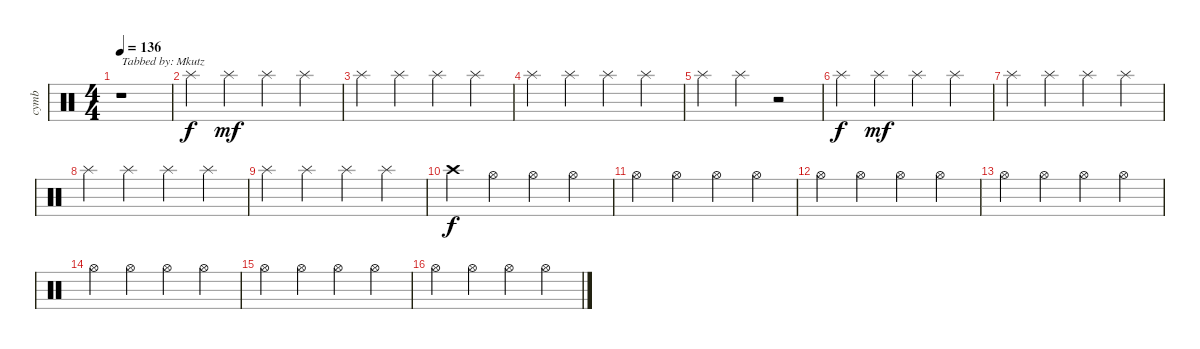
\track ("cymb" "cymb") {instrument percussion}
\staff {score}
\articulation defaults
\ts (4 4)
\tempo 136
\clef neutral
\ks c
r.1{txt "Tabbed by: Mkutz" dy f} |
"Splash (hit)".4 "Splash (hit)".4{dy mf} "Splash (hit)".4 "Splash (hit)".4 |
"Splash (hit)".4 "Splash (hit)".4 "Splash (hit)".4 "Splash (hit)".4 |
"Splash (hit)".4 "Splash (hit)".4 "Splash (hit)".4 "Splash (hit)".4 |
"Splash (hit)".4 "Splash (hit)".4 r.2 |
"Splash (hit)".4{dy f} "Splash (hit)".4{dy mf} "Splash (hit)".4 "Splash (hit)".4 |
"Splash (hit)".4 "Splash (hit)".4 "Splash (hit)".4 "Splash (hit)".4 |
"Splash (hit)".4 "Splash (hit)".4 "Splash (hit)".4 "Splash (hit)".4 |
"Splash (hit)".4 "Splash (hit)".4 "Splash (hit)".4 "Splash (hit)".4 |
"Crash high (hit)".4{dy f} "Hi-Hat (open)".4 "Hi-Hat (open)".4 "Hi-Hat (open)".4 |
"Hi-Hat (open)".4 "Hi-Hat (open)".4 "Hi-Hat (open)".4 "Hi-Hat (open)".4 |
"Hi-Hat (open)".4 "Hi-Hat (open)".4 "Hi-Hat (open)".4 "Hi-Hat (open)".4 |
"Hi-Hat (open)".4 "Hi-Hat (open)".4 "Hi-Hat (open)".4 "Hi-Hat (open)".4 |
"Hi-Hat (open)".4 "Hi-Hat (open)".4 "Hi-Hat (open)".4 "Hi-Hat (open)".4 |
"Hi-Hat (open)".4 "Hi-Hat (open)".4 "Hi-Hat (open)".4 "Hi-Hat (open)".4 |
"Hi-Hat (open)".4 "Hi-Hat (open)".4 "Hi-Hat (open)".4 "Hi-Hat (open)".4
